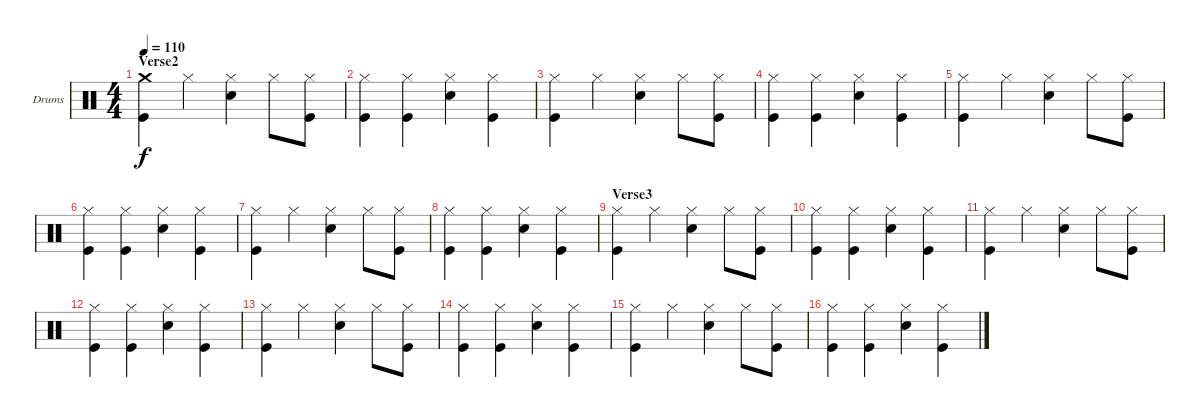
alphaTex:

\defaultSystemsLayout 4
\bracketExtendMode groupsimilarinstruments
\firstSystemTrackNameOrientation horizontal
\otherSystemsTrackNameOrientation horizontal
\track ("Drum" "Drums") {instrument percussion}
\staff {score}
\articulation defaults
\ts (4 4)
\section ("" "Verse2")
\tempo 110
\clef neutral
\scale
0.333333
\ks c
("Crash medium (hit)" "Kick (hit)").4{dy f} "Hi-Hat (closed)".4 ("Hi-Hat (closed)" "Snare (hit) 2").4 "Hi-Hat (closed)".8 ("Hi-Hat (closed)" "Kick (hit)").8 |
\scale
0.333333 ("Hi-Hat (closed)" "Kick (hit)").4 ("Hi-Hat (closed)" "Kick (hit)").4 ("Hi-Hat (closed)" "Snare (hit) 2").4 ("Hi-Hat (closed)" "Kick (hit)").4 |
\scale
0.333333 ("Hi-Hat (closed)" "Kick (hit)").4 "Hi-Hat (closed)".4 ("Hi-Hat (closed)" "Snare (hit) 2").4 "Hi-Hat (closed)".8 ("Hi-Hat (closed)" "Kick (hit)").8 |
\scale
0.333333 ("Hi-Hat (closed)" "Kick (hit)").4 ("Hi-Hat (closed)" "Kick (hit)").4 ("Hi-Hat (closed)" "Snare (hit) 2").4 ("Hi-Hat (closed)" "Kick (hit)").4 |
\scale
0.333333 ("Hi-Hat (closed)" "Kick (hit)").4 "Hi-Hat (closed)".4 ("Hi-Hat (closed)" "Snare (hit) 2").4 "Hi-Hat (closed)".8 ("Hi-Hat (closed)" "Kick (hit)").8 |
\scale
0.333333 ("Hi-Hat (closed)" "Kick (hit)").4 ("Hi-Hat (closed)" "Kick (hit)").4 ("Hi-Hat (closed)" "Snare (hit) 2").4 ("Hi-Hat (closed)" "Kick (hit)").4 |
\scale
0.333333 ("Hi-Hat (closed)" "Kick (hit)").4 "Hi-Hat (closed)".4 ("Hi-Hat (closed)" "Snare (hit) 2").4 "Hi-Hat (closed)".8 ("Hi-Hat (closed)" "Kick (hit)").8 |
\scale
0.333333 ("Hi-Hat (closed)" "Kick (hit)").4 ("Hi-Hat (closed)" "Kick (hit)").4 ("Hi-Hat (closed)" "Snare (hit) 2").4 ("Hi-Hat (closed)" "Kick (hit)").4 |
\section ("" "Verse3")
\scale
0.333333 ("Hi-Hat (closed)" "Kick (hit)").4 "Hi-Hat (closed)".4 ("Hi-Hat (closed)" "Snare (hit) 2").4 "Hi-Hat (closed)".8 ("Hi-Hat (closed)" "Kick (hit)").8 |
\scale
0.333333 ("Hi-Hat (closed)" "Kick (hit)").4 ("Hi-Hat (closed)" "Kick (hit)").4 ("Hi-Hat (closed)" "Snare (hit) 2").4 ("Hi-Hat (closed)" "Kick (hit)").4 |
\scale
0.333333 ("Hi-Hat (closed)" "Kick (hit)").4 "Hi-Hat (closed)".4 ("Hi-Hat (closed)" "Snare (hit) 2").4 "Hi-Hat (closed)".8 ("Hi-Hat (closed)" "Kick (hit)").8 |
\scale
0.333333 ("Hi-Hat (closed)" "Kick (hit)").4 ("Hi-Hat (closed)" "Kick (hit)").4 ("Hi-Hat (closed)" "Snare (hit) 2").4 ("Hi-Hat (closed)" "Kick (hit)").4 |
\scale
0.333333 ("Hi-Hat (closed)" "Kick (hit)").4 "Hi-Hat (closed)".4 ("Hi-Hat (closed)" "Snare (hit) 2").4 "Hi-Hat (closed)".8 ("Hi-Hat (closed)" "Kick (hit)").8 |
\scale
0.333333 ("Hi-Hat (closed)" "Kick (hit)").4 ("Hi-Hat (closed)" "Kick (hit)").4 ("Hi-Hat (closed)" "Snare (hit) 2").4 ("Hi-Hat (closed)" "Kick (hit)").4 |
\scale
0.333333 ("Hi-Hat (closed)" "Kick (hit)").4 "Hi-Hat (closed)".4 ("Hi-Hat (closed)" "Snare (hit) 2").4 "Hi-Hat (closed)".8 ("Hi-Hat (closed)" "Kick (hit)").8 |
\scale
0.333333 ("Hi-Hat (closed)" "Kick (hit)").4 ("Hi-Hat (closed)" "Kick (hit)").4 ("Hi-Hat (closed)" "Snare (hit) 2").4 ("Hi-Hat (closed)" "Kick (hit)").4
